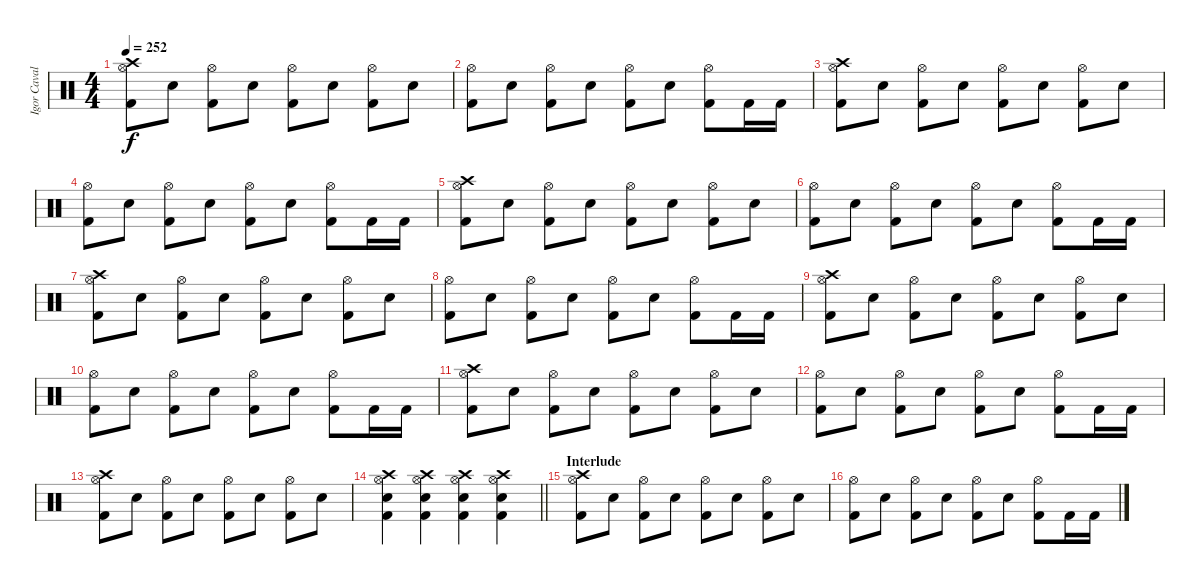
\track ("Igor Cavalera" "Igor Caval") {instrument percussion}
\staff {score}
\articulation defaults
\ts (4 4)
\tempo 252
\clef neutral
\ks c
("Crash high (hit)" "Hi-Hat (open)" "Kick (hit) 2").8{dy f} "Electric Snare (hit)".8 ("Hi-Hat (open)" "Kick (hit) 2").8 "Electric Snare (hit)".8 ("Hi-Hat (open)" "Kick (hit) 2").8 "Electric Snare (hit)".8 ("Hi-Hat (open)" "Kick (hit) 2").8 "Electric Snare (hit)".8 |
("Hi-Hat (open)" "Kick (hit) 2").8 "Electric Snare (hit)".8 ("Hi-Hat (open)" "Kick (hit) 2").8 "Electric Snare (hit)".8 ("Hi-Hat (open)" "Kick (hit) 2").8 "Electric Snare (hit)".8 ("Hi-Hat (open)" "Kick (hit) 2").8 "Kick (hit) 2".16 "Kick (hit) 2".16 |
("Crash high (hit)" "Hi-Hat (open)" "Kick (hit) 2").8 "Electric Snare (hit)".8 ("Hi-Hat (open)" "Kick (hit) 2").8 "Electric Snare (hit)".8 ("Hi-Hat (open)" "Kick (hit) 2").8 "Electric Snare (hit)".8 ("Hi-Hat (open)" "Kick (hit) 2").8 "Electric Snare (hit)".8 |
("Hi-Hat (open)" "Kick (hit) 2").8 "Electric Snare (hit)".8 ("Hi-Hat (open)" "Kick (hit) 2").8 "Electric Snare (hit)".8 ("Hi-Hat (open)" "Kick (hit) 2").8 "Electric Snare (hit)".8 ("Hi-Hat (open)" "Kick (hit) 2").8 "Kick (hit) 2".16 "Kick (hit) 2".16 |
("Crash high (hit)" "Hi-Hat (open)" "Kick (hit) 2").8 "Electric Snare (hit)".8 ("Hi-Hat (open)" "Kick (hit) 2").8 "Electric Snare (hit)".8 ("Hi-Hat (open)" "Kick (hit) 2").8 "Electric Snare (hit)".8 ("Hi-Hat (open)" "Kick (hit) 2").8 "Electric Snare (hit)".8 |
("Hi-Hat (open)" "Kick (hit) 2").8 "Electric Snare (hit)".8 ("Hi-Hat (open)" "Kick (hit) 2").8 "Electric Snare (hit)".8 ("Hi-Hat (open)" "Kick (hit) 2").8 "Electric Snare (hit)".8 ("Hi-Hat (open)" "Kick (hit) 2").8 "Kick (hit) 2".16 "Kick (hit) 2".16 |
("Crash high (hit)" "Hi-Hat (open)" "Kick (hit) 2").8 "Electric Snare (hit)".8 ("Hi-Hat (open)" "Kick (hit) 2").8 "Electric Snare (hit)".8 ("Hi-Hat (open)" "Kick (hit) 2").8 "Electric Snare (hit)".8 ("Hi-Hat (open)" "Kick (hit) 2").8 "Electric Snare (hit)".8 |
("Hi-Hat (open)" "Kick (hit) 2").8 "Electric Snare (hit)".8 ("Hi-Hat (open)" "Kick (hit) 2").8 "Electric Snare (hit)".8 ("Hi-Hat (open)" "Kick (hit) 2").8 "Electric Snare (hit)".8 ("Hi-Hat (open)" "Kick (hit) 2").8 "Kick (hit) 2".16 "Kick (hit) 2".16 |
("Crash high (hit)" "Hi-Hat (open)" "Kick (hit) 2").8 "Electric Snare (hit)".8 ("Hi-Hat (open)" "Kick (hit) 2").8 "Electric Snare (hit)".8 ("Hi-Hat (open)" "Kick (hit) 2").8 "Electric Snare (hit)".8 ("Hi-Hat (open)" "Kick (hit) 2").8 "Electric Snare (hit)".8 |
("Hi-Hat (open)" "Kick (hit) 2").8 "Electric Snare (hit)".8 ("Hi-Hat (open)" "Kick (hit) 2").8 "Electric Snare (hit)".8 ("Hi-Hat (open)" "Kick (hit) 2").8 "Electric Snare (hit)".8 ("Hi-Hat (open)" "Kick (hit) 2").8 "Kick (hit) 2".16 "Kick (hit) 2".16 |
("Crash high (hit)" "Hi-Hat (open)" "Kick (hit) 2").8 "Electric Snare (hit)".8 ("Hi-Hat (open)" "Kick (hit) 2").8 "Electric Snare (hit)".8 ("Hi-Hat (open)" "Kick (hit) 2").8 "Electric Snare (hit)".8 ("Hi-Hat (open)" "Kick (hit) 2").8 "Electric Snare (hit)".8 |
("Hi-Hat (open)" "Kick (hit) 2").8 "Electric Snare (hit)".8 ("Hi-Hat (open)" "Kick (hit) 2").8 "Electric Snare (hit)".8 ("Hi-Hat (open)" "Kick (hit) 2").8 "Electric Snare (hit)".8 ("Hi-Hat (open)" "Kick (hit) 2").8 "Kick (hit) 2".16 "Kick (hit) 2".16 |
("Crash high (hit)" "Hi-Hat (open)" "Kick (hit) 2").8 "Electric Snare (hit)".8 ("Hi-Hat (open)" "Kick (hit) 2").8 "Electric Snare (hit)".8 ("Hi-Hat (open)" "Kick (hit) 2").8 "Electric Snare (hit)".8 ("Hi-Hat (open)" "Kick (hit) 2").8 "Electric Snare (hit)".8 |
\barLineRight lightlight
("Crash high (hit)" "Hi-Hat (open)" "Electric Snare (hit)" "Kick (hit) 2").4 ("Crash high (hit)" "Hi-Hat (open)" "Electric Snare (hit)" "Kick (hit) 2").4 ("Crash high (hit)" "Hi-Hat (open)" "Electric Snare (hit)" "Kick (hit) 2").4 ("Crash high (hit)" "Hi-Hat (open)" "Electric Snare (hit)" "Kick (hit) 2").4 |
\section ("" "Interlude")
("Crash high (hit)" "Hi-Hat (open)" "Kick (hit) 2").8 "Electric Snare (hit)".8 ("Hi-Hat (open)" "Kick (hit) 2").8 "Electric Snare (hit)".8 ("Hi-Hat (open)" "Kick (hit) 2").8 "Electric Snare (hit)".8 ("Hi-Hat (open)" "Kick (hit) 2").8 "Electric Snare (hit)".8 |
("Hi-Hat (open)" "Kick (hit) 2").8 "Electric Snare (hit)".8 ("Hi-Hat (open)" "Kick (hit) 2").8 "Electric Snare (hit)".8 ("Hi-Hat (open)" "Kick (hit) 2").8 "Electric Snare (hit)".8 ("Hi-Hat (open)" "Kick (hit) 2").8 "Kick (hit) 2".16 "Kick (hit) 2".16
